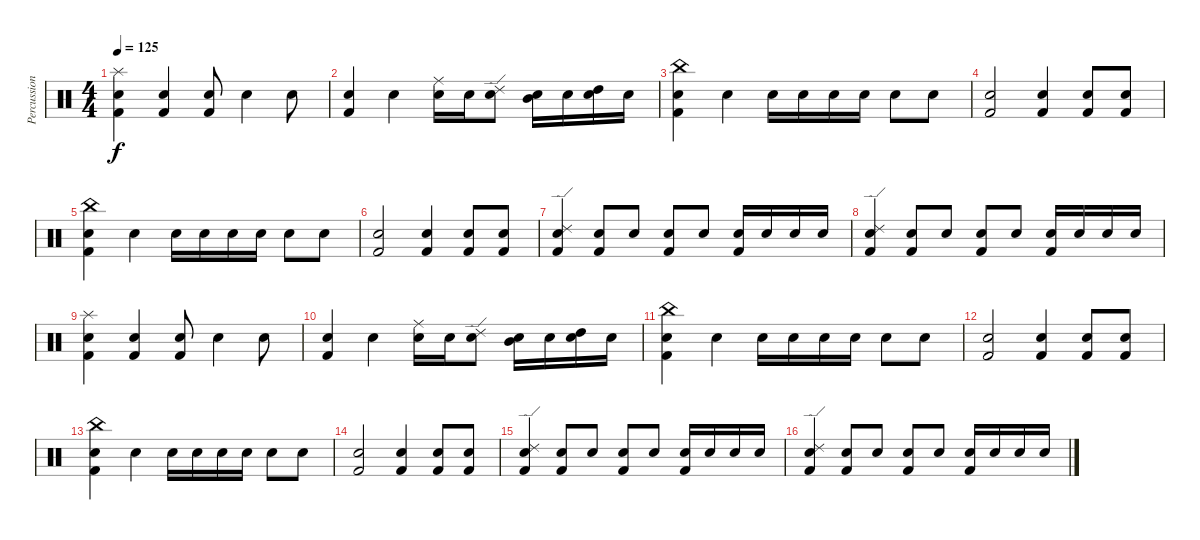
\track ("Percussion" "Percussion") {instrument percussion}
\staff {score}
\articulation defaults
\ts (4 4)
\tempo 125
\clef neutral
\ks c
("Kick (hit) 2" "Snare (hit) 2" "Splash (hit)").4{dy f} ("Kick (hit) 2" "Snare (hit) 2").4 ("Kick (hit) 2" "Snare (hit) 2").8 "Snare (hit) 2".4 "Snare (hit) 2".8 |
("Kick (hit) 2" "Snare (hit) 2").4 "Snare (hit) 2".4 ("Ride (middle)" "Snare (hit) 2").16 "Snare (hit) 2".16 ("Ride (edge) 2" "Snare (hit) 2").8 ("Mid Tom (hit)" "Snare (hit) 2").16 "Snare (hit) 2".16 ("High Tom (hit)" "Snare (hit) 2").16 "Snare (hit) 2".16 |
("Kick (hit) 2" "Snare (hit) 2" "China (hit)").4 "Snare (hit) 2".4 "Snare (hit) 2".16 "Snare (hit) 2".16 "Snare (hit) 2".16 "Snare (hit) 2".16 "Snare (hit) 2".8 "Snare (hit) 2".8 |
("Kick (hit) 2" "Snare (hit) 2").2 ("Kick (hit) 2" "Snare (hit) 2").4 ("Kick (hit) 2" "Snare (hit) 2").8 ("Kick (hit) 2" "Snare (hit) 2").8 |
("Kick (hit) 2" "Snare (hit) 2" "China (hit)").4 "Snare (hit) 2".4 "Snare (hit) 2".16 "Snare (hit) 2".16 "Snare (hit) 2".16 "Snare (hit) 2".16 "Snare (hit) 2".8 "Snare (hit) 2".8 |
("Kick (hit) 2" "Snare (hit) 2").2 ("Kick (hit) 2" "Snare (hit) 2").4 ("Kick (hit) 2" "Snare (hit) 2").8 ("Kick (hit) 2" "Snare (hit) 2").8 |
("Kick (hit) 2" "Snare (hit) 2" "Ride (edge) 2").4 ("Kick (hit) 2" "Snare (hit) 2").8 "Snare (hit) 2".8 ("Kick (hit) 2" "Snare (hit) 2").8 "Snare (hit) 2".8 ("Kick (hit) 2" "Snare (hit) 2").16 "Snare (hit) 2".16 "Snare (hit) 2".16 "Snare (hit) 2".16 |
("Kick (hit) 2" "Snare (hit) 2" "Ride (edge) 2").4 ("Kick (hit) 2" "Snare (hit) 2").8 "Snare (hit) 2".8 ("Kick (hit) 2" "Snare (hit) 2").8 "Snare (hit) 2".8 ("Kick (hit) 2" "Snare (hit) 2").16 "Snare (hit) 2".16 "Snare (hit) 2".16 "Snare (hit) 2".16 |
("Kick (hit) 2" "Snare (hit) 2" "Splash (hit)").4 ("Kick (hit) 2" "Snare (hit) 2").4 ("Kick (hit) 2" "Snare (hit) 2").8 "Snare (hit) 2".4 "Snare (hit) 2".8 |
("Kick (hit) 2" "Snare (hit) 2").4 "Snare (hit) 2".4 ("Ride (middle)" "Snare (hit) 2").16 "Snare (hit) 2".16 ("Ride (edge) 2" "Snare (hit) 2").8 ("Mid Tom (hit)" "Snare (hit) 2").16 "Snare (hit) 2".16 ("High Tom (hit)" "Snare (hit) 2").16 "Snare (hit) 2".16 |
("Kick (hit) 2" "Snare (hit) 2" "China (hit)").4 "Snare (hit) 2".4 "Snare (hit) 2".16 "Snare (hit) 2".16 "Snare (hit) 2".16 "Snare (hit) 2".16 "Snare (hit) 2".8 "Snare (hit) 2".8 |
("Kick (hit) 2" "Snare (hit) 2").2 ("Kick (hit) 2" "Snare (hit) 2").4 ("Kick (hit) 2" "Snare (hit) 2").8 ("Kick (hit) 2" "Snare (hit) 2").8 |
("Kick (hit) 2" "Snare (hit) 2" "China (hit)").4 "Snare (hit) 2".4 "Snare (hit) 2".16 "Snare (hit) 2".16 "Snare (hit) 2".16 "Snare (hit) 2".16 "Snare (hit) 2".8 "Snare (hit) 2".8 |
("Kick (hit) 2" "Snare (hit) 2").2 ("Kick (hit) 2" "Snare (hit) 2").4 ("Kick (hit) 2" "Snare (hit) 2").8 ("Kick (hit) 2" "Snare (hit) 2").8 |
("Kick (hit) 2" "Snare (hit) 2" "Ride (edge) 2").4 ("Kick (hit) 2" "Snare (hit) 2").8 "Snare (hit) 2".8 ("Kick (hit) 2" "Snare (hit) 2").8 "Snare (hit) 2".8 ("Kick (hit) 2" "Snare (hit) 2").16 "Snare (hit) 2".16 "Snare (hit) 2".16 "Snare (hit) 2".16 |
("Kick (hit) 2" "Snare (hit) 2" "Ride (edge) 2").4 ("Kick (hit) 2" "Snare (hit) 2").8 "Snare (hit) 2".8 ("Kick (hit) 2" "Snare (hit) 2").8 "Snare (hit) 2".8 ("Kick (hit) 2" "Snare (hit) 2").16 "Snare (hit) 2".16 "Snare (hit) 2".16 "Snare (hit) 2".16
